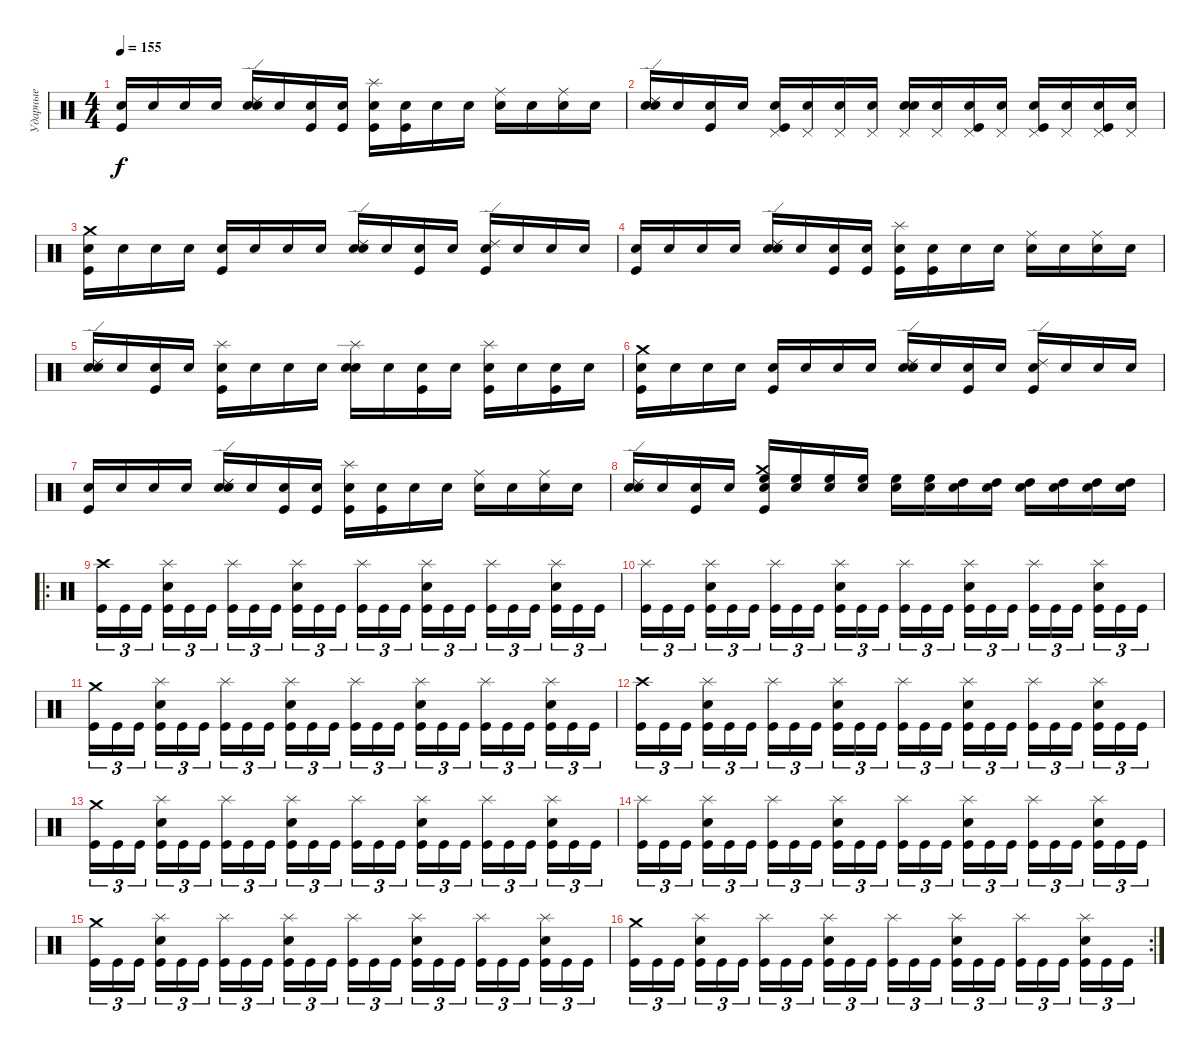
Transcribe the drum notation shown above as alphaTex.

\track ("Ударные" "Ударные") {instrument percussion}
\staff {score}
\articulation defaults
\ts (4 4)
\tempo 155
\clef neutral
\ks c
("Kick (hit)" "Snare (hit)").16{dy f} "Snare (hit)".16 "Snare (hit)".16 "Snare (hit)".16 ("Snare (hit) 2" "Ride (edge) 2" "Snare (hit)").16 "Snare (hit)".16 ("Kick (hit)" "Snare (hit)").16 ("Kick (hit)" "Snare (hit)").16 ("Splash (hit)" "Kick (hit)" "Snare (hit)").16 ("Kick (hit)" "Snare (hit)").16 "Snare (hit)".16 "Snare (hit)".16 ("Ride (middle)" "Snare (hit)").16 "Snare (hit)".16 ("Ride (middle)" "Snare (hit)").16 "Snare (hit)".16 |
("Snare (hit) 2" "Ride (edge) 2" "Snare (hit)").16 "Snare (hit)".16 ("Kick (hit)" "Snare (hit)").16 "Snare (hit)".16 ("Pedal Hi-Hat (hit)" "Kick (hit)" "Snare (hit)").16 ("Pedal Hi-Hat (hit)" "Snare (hit)").16 ("Pedal Hi-Hat (hit)" "Snare (hit)").16 ("Pedal Hi-Hat (hit)" "Snare (hit)").16 ("Pedal Hi-Hat (hit)" "Snare (hit) 2" "Snare (hit)").16 ("Pedal Hi-Hat (hit)" "Snare (hit)").16 ("Pedal Hi-Hat (hit)" "Kick (hit)" "Snare (hit)").16 ("Pedal Hi-Hat (hit)" "Snare (hit)").16 ("Pedal Hi-Hat (hit)" "Kick (hit)" "Snare (hit)").16 ("Pedal Hi-Hat (hit)" "Snare (hit)").16 ("Pedal Hi-Hat (hit)" "Kick (hit)" "Snare (hit)").16 ("Pedal Hi-Hat (hit)" "Snare (hit)").16 |
("Crash medium (hit)" "Kick (hit)" "Snare (hit)").16 "Snare (hit)".16 "Snare (hit)".16 "Snare (hit)".16 ("Kick (hit)" "Snare (hit)").16 "Snare (hit)".16 "Snare (hit)".16 "Snare (hit)".16 ("Snare (hit) 2" "Ride (edge) 2" "Snare (hit)").16 "Snare (hit)".16 ("Kick (hit)" "Snare (hit)").16 "Snare (hit)".16 ("Ride (edge) 2" "Kick (hit)" "Snare (hit)").16 "Snare (hit)".16 "Snare (hit)".16 "Snare (hit)".16 |
("Kick (hit)" "Snare (hit)").16 "Snare (hit)".16 "Snare (hit)".16 "Snare (hit)".16 ("Snare (hit) 2" "Ride (edge) 2" "Snare (hit)").16 "Snare (hit)".16 ("Kick (hit)" "Snare (hit)").16 ("Kick (hit)" "Snare (hit)").16 ("Splash (hit)" "Kick (hit)" "Snare (hit)").16 ("Kick (hit)" "Snare (hit)").16 "Snare (hit)".16 "Snare (hit)".16 ("Ride (middle)" "Snare (hit)").16 "Snare (hit)".16 ("Ride (middle)" "Snare (hit)").16 "Snare (hit)".16 |
("Snare (hit) 2" "Ride (edge) 2" "Snare (hit)").16 "Snare (hit)".16 ("Kick (hit)" "Snare (hit)").16 "Snare (hit)".16 ("Splash (hit)" "Kick (hit)" "Snare (hit)").16 "Snare (hit)".16 "Snare (hit)".16 "Snare (hit)".16 ("Splash (hit)" "Snare (hit) 2" "Snare (hit)").16 "Snare (hit)".16 ("Kick (hit)" "Snare (hit)").16 "Snare (hit)".16 ("Splash (hit)" "Kick (hit)" "Snare (hit)").16 "Snare (hit)".16 ("Kick (hit)" "Snare (hit)").16 "Snare (hit)".16 |
("Crash medium (hit)" "Kick (hit)" "Snare (hit)").16 "Snare (hit)".16 "Snare (hit)".16 "Snare (hit)".16 ("Kick (hit)" "Snare (hit)").16 "Snare (hit)".16 "Snare (hit)".16 "Snare (hit)".16 ("Snare (hit) 2" "Ride (edge) 2" "Snare (hit)").16 "Snare (hit)".16 ("Kick (hit)" "Snare (hit)").16 "Snare (hit)".16 ("Ride (edge) 2" "Kick (hit)" "Snare (hit)").16 "Snare (hit)".16 "Snare (hit)".16 "Snare (hit)".16 |
("Kick (hit)" "Snare (hit)").16 "Snare (hit)".16 "Snare (hit)".16 "Snare (hit)".16 ("Snare (hit) 2" "Ride (edge) 2" "Snare (hit)").16 "Snare (hit)".16 ("Kick (hit)" "Snare (hit)").16 ("Kick (hit)" "Snare (hit)").16 ("Splash (hit)" "Kick (hit)" "Snare (hit)").16 ("Kick (hit)" "Snare (hit)").16 "Snare (hit)".16 "Snare (hit)".16 ("Ride (middle)" "Snare (hit)").16 "Snare (hit)".16 ("Ride (middle)" "Snare (hit)").16 "Snare (hit)".16 |
("Snare (hit) 2" "Ride (edge) 2" "Snare (hit)").16 "Snare (hit)".16 ("Kick (hit)" "Snare (hit)").16 "Snare (hit)".16 ("High Floor Tom (hit)" "Crash medium (hit)" "Kick (hit)" "Snare (hit)").16 ("High Floor Tom (hit)" "Snare (hit)").16 ("High Floor Tom (hit)" "Snare (hit)").16 ("High Floor Tom (hit)" "Snare (hit)").16 ("High Floor Tom (hit)" "Snare (hit)").16 ("High Floor Tom (hit)" "Snare (hit)").16 ("High Tom (hit)" "Snare (hit)").16 ("High Tom (hit)" "Snare (hit)").16 ("High Tom (hit)" "Snare (hit)").16 ("High Tom (hit)" "Snare (hit)").16 ("High Tom (hit)" "Snare (hit)").16 ("High Tom (hit)" "Snare (hit)").16 |
\ro
("Crash high (hit)" "Kick (hit)").16{tu (3 2)} "Kick (hit)".16{tu (3 2)} "Kick (hit)".16{tu (3 2) beam splitsecondary} ("Splash (hit)" "Snare (hit) 2" "Kick (hit)").16{tu (3 2)} "Kick (hit)".16{tu (3 2)} "Kick (hit)".16{tu (3 2)} ("Splash (hit)" "Kick (hit)").16{tu (3 2)} "Kick (hit)".16{tu (3 2)} "Kick (hit)".16{tu (3 2) beam splitsecondary} ("Splash (hit)" "Snare (hit) 2" "Kick (hit)").16{tu (3 2)} "Kick (hit)".16{tu (3 2)} "Kick (hit)".16{tu (3 2)} ("Splash (hit)" "Kick (hit)").16{tu (3 2)} "Kick (hit)".16{tu (3 2)} "Kick (hit)".16{tu (3 2) beam splitsecondary} ("Splash (hit)" "Snare (hit) 2" "Kick (hit)").16{tu (3 2)} "Kick (hit)".16{tu (3 2)} "Kick (hit)".16{tu (3 2)} ("Splash (hit)" "Kick (hit)").16{tu (3 2)} "Kick (hit)".16{tu (3 2)} "Kick (hit)".16{tu (3 2) beam splitsecondary} ("Splash (hit)" "Snare (hit) 2" "Kick (hit)").16{tu (3 2)} "Kick (hit)".16{tu (3 2)} "Kick (hit)".16{tu (3 2)} |
("Splash (hit)" "Kick (hit)").16{tu (3 2)} "Kick (hit)".16{tu (3 2)} "Kick (hit)".16{tu (3 2) beam splitsecondary} ("Splash (hit)" "Snare (hit) 2" "Kick (hit)").16{tu (3 2)} "Kick (hit)".16{tu (3 2)} "Kick (hit)".16{tu (3 2)} ("Splash (hit)" "Kick (hit)").16{tu (3 2)} "Kick (hit)".16{tu (3 2)} "Kick (hit)".16{tu (3 2) beam splitsecondary} ("Splash (hit)" "Snare (hit) 2" "Kick (hit)").16{tu (3 2)} "Kick (hit)".16{tu (3 2)} "Kick (hit)".16{tu (3 2)} ("Splash (hit)" "Kick (hit)").16{tu (3 2)} "Kick (hit)".16{tu (3 2)} "Kick (hit)".16{tu (3 2) beam splitsecondary} ("Splash (hit)" "Snare (hit) 2" "Kick (hit)").16{tu (3 2)} "Kick (hit)".16{tu (3 2)} "Kick (hit)".16{tu (3 2)} ("Splash (hit)" "Kick (hit)").16{tu (3 2)} "Kick (hit)".16{tu (3 2)} "Kick (hit)".16{tu (3 2) beam splitsecondary} ("Splash (hit)" "Snare (hit) 2" "Kick (hit)").16{tu (3 2)} "Kick (hit)".16{tu (3 2)} "Kick (hit)".16{tu (3 2)} |
("Crash medium (hit)" "Kick (hit)").16{tu (3 2)} "Kick (hit)".16{tu (3 2)} "Kick (hit)".16{tu (3 2) beam splitsecondary} ("Splash (hit)" "Snare (hit) 2" "Kick (hit)").16{tu (3 2)} "Kick (hit)".16{tu (3 2)} "Kick (hit)".16{tu (3 2)} ("Splash (hit)" "Kick (hit)").16{tu (3 2)} "Kick (hit)".16{tu (3 2)} "Kick (hit)".16{tu (3 2) beam splitsecondary} ("Splash (hit)" "Snare (hit) 2" "Kick (hit)").16{tu (3 2)} "Kick (hit)".16{tu (3 2)} "Kick (hit)".16{tu (3 2)} ("Splash (hit)" "Kick (hit)").16{tu (3 2)} "Kick (hit)".16{tu (3 2)} "Kick (hit)".16{tu (3 2) beam splitsecondary} ("Splash (hit)" "Snare (hit) 2" "Kick (hit)").16{tu (3 2)} "Kick (hit)".16{tu (3 2)} "Kick (hit)".16{tu (3 2)} ("Splash (hit)" "Kick (hit)").16{tu (3 2)} "Kick (hit)".16{tu (3 2)} "Kick (hit)".16{tu (3 2) beam splitsecondary} ("Splash (hit)" "Snare (hit) 2" "Kick (hit)").16{tu (3 2)} "Kick (hit)".16{tu (3 2)} "Kick (hit)".16{tu (3 2)} |
("Crash high (hit)" "Kick (hit)").16{tu (3 2)} "Kick (hit)".16{tu (3 2)} "Kick (hit)".16{tu (3 2) beam splitsecondary} ("Splash (hit)" "Snare (hit) 2" "Kick (hit)").16{tu (3 2)} "Kick (hit)".16{tu (3 2)} "Kick (hit)".16{tu (3 2)} ("Splash (hit)" "Kick (hit)").16{tu (3 2)} "Kick (hit)".16{tu (3 2)} "Kick (hit)".16{tu (3 2) beam splitsecondary} ("Splash (hit)" "Snare (hit) 2" "Kick (hit)").16{tu (3 2)} "Kick (hit)".16{tu (3 2)} "Kick (hit)".16{tu (3 2)} ("Splash (hit)" "Kick (hit)").16{tu (3 2)} "Kick (hit)".16{tu (3 2)} "Kick (hit)".16{tu (3 2) beam splitsecondary} ("Splash (hit)" "Snare (hit) 2" "Kick (hit)").16{tu (3 2)} "Kick (hit)".16{tu (3 2)} "Kick (hit)".16{tu (3 2)} ("Splash (hit)" "Kick (hit)").16{tu (3 2)} "Kick (hit)".16{tu (3 2)} "Kick (hit)".16{tu (3 2) beam splitsecondary} ("Splash (hit)" "Snare (hit) 2" "Kick (hit)").16{tu (3 2)} "Kick (hit)".16{tu (3 2)} "Kick (hit)".16{tu (3 2)} |
("Crash medium (hit)" "Kick (hit)").16{tu (3 2)} "Kick (hit)".16{tu (3 2)} "Kick (hit)".16{tu (3 2) beam splitsecondary} ("Splash (hit)" "Snare (hit) 2" "Kick (hit)").16{tu (3 2)} "Kick (hit)".16{tu (3 2)} "Kick (hit)".16{tu (3 2)} ("Splash (hit)" "Kick (hit)").16{tu (3 2)} "Kick (hit)".16{tu (3 2)} "Kick (hit)".16{tu (3 2) beam splitsecondary} ("Splash (hit)" "Snare (hit) 2" "Kick (hit)").16{tu (3 2)} "Kick (hit)".16{tu (3 2)} "Kick (hit)".16{tu (3 2)} ("Splash (hit)" "Kick (hit)").16{tu (3 2)} "Kick (hit)".16{tu (3 2)} "Kick (hit)".16{tu (3 2) beam splitsecondary} ("Splash (hit)" "Snare (hit) 2" "Kick (hit)").16{tu (3 2)} "Kick (hit)".16{tu (3 2)} "Kick (hit)".16{tu (3 2)} ("Splash (hit)" "Kick (hit)").16{tu (3 2)} "Kick (hit)".16{tu (3 2)} "Kick (hit)".16{tu (3 2) beam splitsecondary} ("Splash (hit)" "Snare (hit) 2" "Kick (hit)").16{tu (3 2)} "Kick (hit)".16{tu (3 2)} "Kick (hit)".16{tu (3 2)} |
("Splash (hit)" "Kick (hit)").16{tu (3 2)} "Kick (hit)".16{tu (3 2)} "Kick (hit)".16{tu (3 2) beam splitsecondary} ("Splash (hit)" "Snare (hit) 2" "Kick (hit)").16{tu (3 2)} "Kick (hit)".16{tu (3 2)} "Kick (hit)".16{tu (3 2)} ("Splash (hit)" "Kick (hit)").16{tu (3 2)} "Kick (hit)".16{tu (3 2)} "Kick (hit)".16{tu (3 2) beam splitsecondary} ("Splash (hit)" "Snare (hit) 2" "Kick (hit)").16{tu (3 2)} "Kick (hit)".16{tu (3 2)} "Kick (hit)".16{tu (3 2)} ("Splash (hit)" "Kick (hit)").16{tu (3 2)} "Kick (hit)".16{tu (3 2)} "Kick (hit)".16{tu (3 2) beam splitsecondary} ("Splash (hit)" "Snare (hit) 2" "Kick (hit)").16{tu (3 2)} "Kick (hit)".16{tu (3 2)} "Kick (hit)".16{tu (3 2)} ("Splash (hit)" "Kick (hit)").16{tu (3 2)} "Kick (hit)".16{tu (3 2)} "Kick (hit)".16{tu (3 2) beam splitsecondary} ("Splash (hit)" "Snare (hit) 2" "Kick (hit)").16{tu (3 2)} "Kick (hit)".16{tu (3 2)} "Kick (hit)".16{tu (3 2)} |
("Crash medium (hit)" "Kick (hit)").16{tu (3 2)} "Kick (hit)".16{tu (3 2)} "Kick (hit)".16{tu (3 2) beam splitsecondary} ("Splash (hit)" "Snare (hit) 2" "Kick (hit)").16{tu (3 2)} "Kick (hit)".16{tu (3 2)} "Kick (hit)".16{tu (3 2)} ("Splash (hit)" "Kick (hit)").16{tu (3 2)} "Kick (hit)".16{tu (3 2)} "Kick (hit)".16{tu (3 2) beam splitsecondary} ("Splash (hit)" "Snare (hit) 2" "Kick (hit)").16{tu (3 2)} "Kick (hit)".16{tu (3 2)} "Kick (hit)".16{tu (3 2)} ("Splash (hit)" "Kick (hit)").16{tu (3 2)} "Kick (hit)".16{tu (3 2)} "Kick (hit)".16{tu (3 2) beam splitsecondary} ("Splash (hit)" "Snare (hit) 2" "Kick (hit)").16{tu (3 2)} "Kick (hit)".16{tu (3 2)} "Kick (hit)".16{tu (3 2)} ("Splash (hit)" "Kick (hit)").16{tu (3 2)} "Kick (hit)".16{tu (3 2)} "Kick (hit)".16{tu (3 2) beam splitsecondary} ("Splash (hit)" "Snare (hit) 2" "Kick (hit)").16{tu (3 2)} "Kick (hit)".16{tu (3 2)} "Kick (hit)".16{tu (3 2)} |
\rc 2
("Crash medium (hit)" "Kick (hit)").16{tu (3 2)} "Kick (hit)".16{tu (3 2)} "Kick (hit)".16{tu (3 2) beam splitsecondary} ("Splash (hit)" "Snare (hit) 2" "Kick (hit)").16{tu (3 2)} "Kick (hit)".16{tu (3 2)} "Kick (hit)".16{tu (3 2)} ("Splash (hit)" "Kick (hit)").16{tu (3 2)} "Kick (hit)".16{tu (3 2)} "Kick (hit)".16{tu (3 2) beam splitsecondary} ("Splash (hit)" "Snare (hit) 2" "Kick (hit)").16{tu (3 2)} "Kick (hit)".16{tu (3 2)} "Kick (hit)".16{tu (3 2)} ("Splash (hit)" "Kick (hit)").16{tu (3 2)} "Kick (hit)".16{tu (3 2)} "Kick (hit)".16{tu (3 2) beam splitsecondary} ("Splash (hit)" "Snare (hit) 2" "Kick (hit)").16{tu (3 2)} "Kick (hit)".16{tu (3 2)} "Kick (hit)".16{tu (3 2)} ("Splash (hit)" "Kick (hit)").16{tu (3 2)} "Kick (hit)".16{tu (3 2)} "Kick (hit)".16{tu (3 2) beam splitsecondary} ("Splash (hit)" "Snare (hit) 2" "Kick (hit)").16{tu (3 2)} "Kick (hit)".16{tu (3 2)} "Kick (hit)".16{tu (3 2)}
